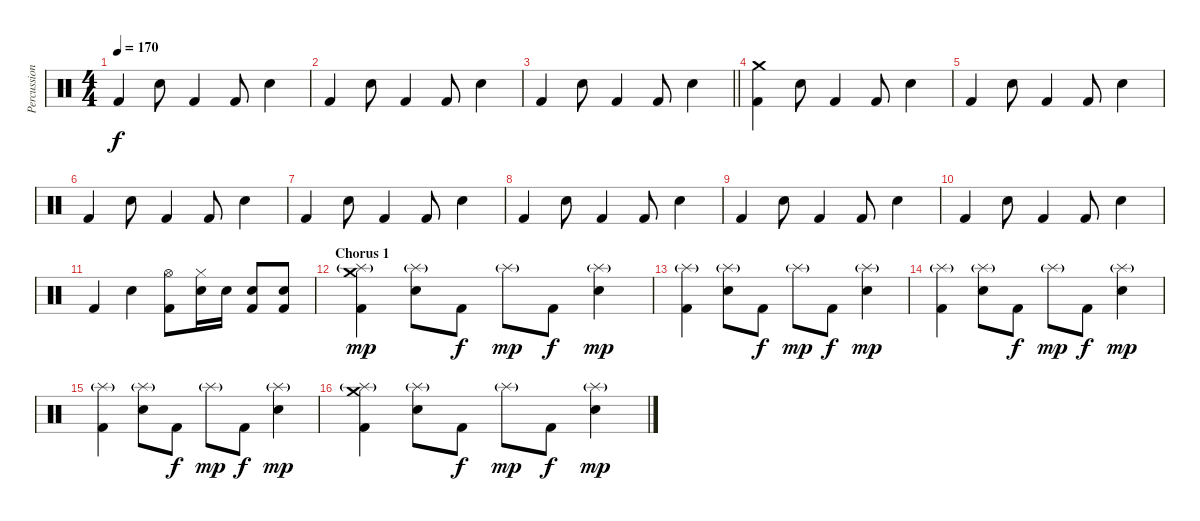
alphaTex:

\track ("Percussions" "Percussion") {instrument percussion}
\staff {score}
\articulation defaults
\ts (4 4)
\tempo 170
\clef neutral
\ks c "Kick (hit) 2".4{dy f} "Electric Snare (hit)".8 "Kick (hit) 2".4 "Kick (hit) 2".8 "Electric Snare (hit)".4
|
"Kick (hit) 2".4 "Electric Snare (hit)".8 "Kick (hit) 2".4 "Kick (hit) 2".8 "Electric Snare (hit)".4 |
\barLineRight lightlight "Kick (hit) 2".4 "Electric Snare (hit)".8 "Kick (hit) 2".4 "Kick (hit) 2".8 "Electric Snare (hit)".4
|
("Crash medium (hit)" "Kick (hit) 2").4 "Electric Snare (hit)".8 "Kick (hit) 2".4 "Kick (hit) 2".8 "Electric Snare (hit)".4 |
"Kick (hit) 2".4 "Electric Snare (hit)".8 "Kick (hit) 2".4 "Kick (hit) 2".8 "Electric Snare (hit)".4 |
"Kick (hit) 2".4 "Electric Snare (hit)".8 "Kick (hit) 2".4 "Kick (hit) 2".8 "Electric Snare (hit)".4 |
"Kick (hit) 2".4 "Electric Snare (hit)".8 "Kick (hit) 2".4 "Kick (hit) 2".8 "Electric Snare (hit)".4 |
"Kick (hit) 2".4 "Electric Snare (hit)".8 "Kick (hit) 2".4 "Kick (hit) 2".8 "Electric Snare (hit)".4 |
"Kick (hit) 2".4 "Electric Snare (hit)".8 "Kick (hit) 2".4 "Kick (hit) 2".8 "Electric Snare (hit)".4 |
"Kick (hit) 2".4 "Electric Snare (hit)".8 "Kick (hit) 2".4 "Kick (hit) 2".8 "Electric Snare (hit)".4 |
"Kick (hit) 2".4 "Electric Snare (hit)".4 ("Hi-Hat (open)" "Kick (hit) 2").8 ("Hi-Hat (closed)" "Electric Snare (hit)").16 "Electric Snare (hit)".16 ("Kick (hit) 2" "Electric Snare (hit)").8 ("Kick (hit) 2" "Electric Snare (hit)").8 |
\section ("" "Chorus 1")
("Crash medium (hit)" "Splash (hit)"{g} "Kick (hit) 2").4{dy mp} ("Splash (hit)"{g} "Electric Snare (hit)").8 "Kick (hit) 2".8{dy f} "Splash (hit)"{g}.8{dy mp} "Kick (hit) 2".8{dy f} ("Splash (hit)"{g} "Electric Snare (hit)").4{dy mp} |
("Splash (hit)"{g} "Kick (hit) 2").4 ("Splash (hit)"{g} "Electric Snare (hit)").8 "Kick (hit) 2".8{dy f} "Splash (hit)"{g}.8{dy mp} "Kick (hit) 2".8{dy f} ("Splash (hit)"{g} "Electric Snare (hit)").4{dy mp} |
("Splash (hit)"{g} "Kick (hit) 2").4 ("Splash (hit)"{g} "Electric Snare (hit)").8 "Kick (hit) 2".8{dy f} "Splash (hit)"{g}.8{dy mp} "Kick (hit) 2".8{dy f} ("Splash (hit)"{g} "Electric Snare (hit)").4{dy mp} |
("Splash (hit)"{g} "Kick (hit) 2").4 ("Splash (hit)"{g} "Electric Snare (hit)").8 "Kick (hit) 2".8{dy f} "Splash (hit)"{g}.8{dy mp} "Kick (hit) 2".8{dy f} ("Splash (hit)"{g} "Electric Snare (hit)").4{dy mp} |
("Crash medium (hit)" "Splash (hit)"{g} "Kick (hit) 2").4 ("Splash (hit)"{g} "Electric Snare (hit)").8 "Kick (hit) 2".8{dy f} "Splash (hit)"{g}.8{dy mp} "Kick (hit) 2".8{dy f} ("Splash (hit)"{g} "Electric Snare (hit)").4{dy mp}
